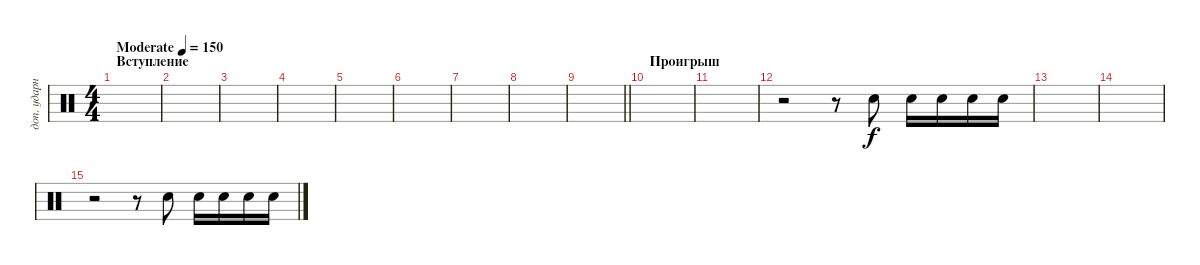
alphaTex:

\track ("доп. ударные" "доп. ударн") {instrument percussion}
\staff {score}
\articulation defaults
\ts (4 4)
\section ("" "Вступление")
\tempo (150 "Moderate")
\clef neutral
\ks c
|
|
|
|
|
|
|
|
\barLineRight lightlight
|
\section ("" "Проигрыш")
|
|
r.2 r.8 "Snare (hit) 2".8 "Snare (hit) 2".16 "Snare (hit) 2".16 "Snare (hit) 2".16 "Snare (hit) 2".16 |
|
|
r.2 r.8 "Snare (hit) 2".8 "Snare (hit) 2".16 "Snare (hit) 2".16 "Snare (hit) 2".16 "Snare (hit) 2".16
